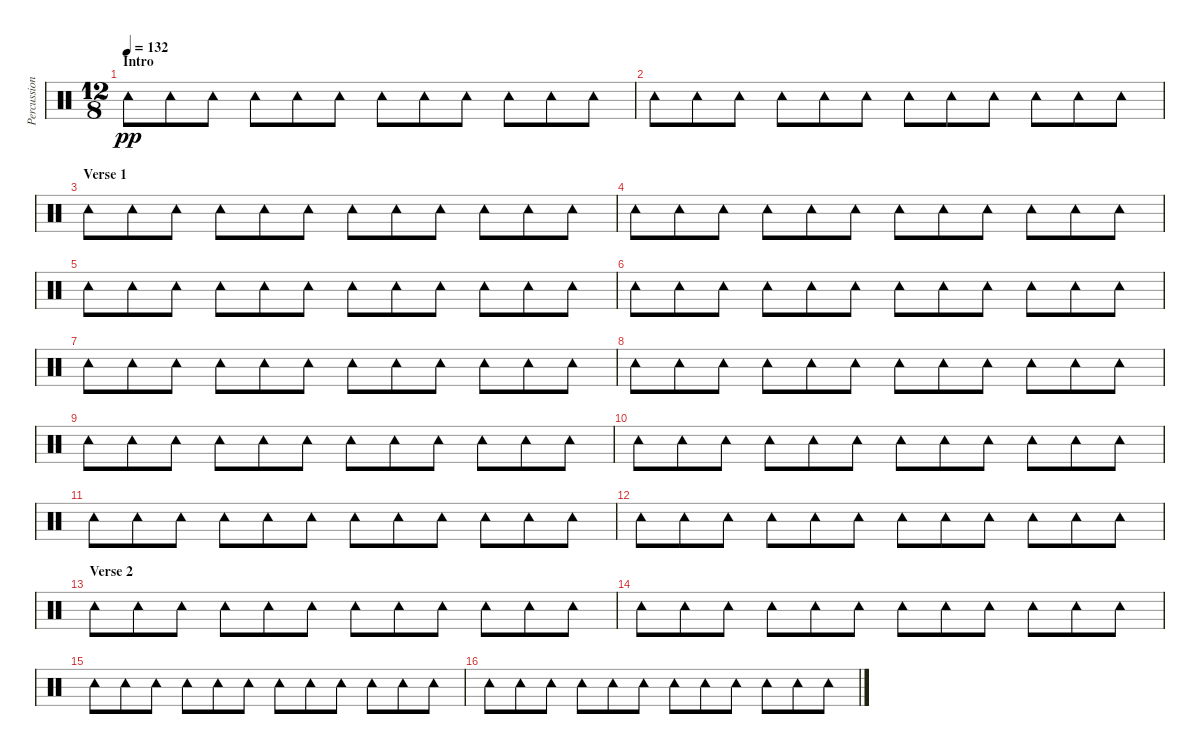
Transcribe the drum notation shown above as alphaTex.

\track ("Percussion" "Percussion") {instrument percussion}
\staff {score}
\articulation defaults
\ts (12 8)
\section ("" "Intro")
\tempo 132
\clef neutral
\ks c "Tambourine (hit)".8{dy pp} "Tambourine (hit)".8 "Tambourine (hit)".8 "Tambourine (hit)".8 "Tambourine (hit)".8 "Tambourine (hit)".8 "Tambourine (hit)".8 "Tambourine (hit)".8 "Tambourine (hit)".8 "Tambourine (hit)".8 "Tambourine (hit)".8 "Tambourine (hit)".8
|
"Tambourine (hit)".8 "Tambourine (hit)".8 "Tambourine (hit)".8 "Tambourine (hit)".8 "Tambourine (hit)".8 "Tambourine (hit)".8 "Tambourine (hit)".8 "Tambourine (hit)".8 "Tambourine (hit)".8 "Tambourine (hit)".8 "Tambourine (hit)".8 "Tambourine (hit)".8 |
\section ("" "Verse 1")
"Tambourine (hit)".8 "Tambourine (hit)".8 "Tambourine (hit)".8 "Tambourine (hit)".8 "Tambourine (hit)".8 "Tambourine (hit)".8 "Tambourine (hit)".8 "Tambourine (hit)".8 "Tambourine (hit)".8 "Tambourine (hit)".8 "Tambourine (hit)".8 "Tambourine (hit)".8 |
"Tambourine (hit)".8 "Tambourine (hit)".8 "Tambourine (hit)".8 "Tambourine (hit)".8 "Tambourine (hit)".8 "Tambourine (hit)".8 "Tambourine (hit)".8 "Tambourine (hit)".8 "Tambourine (hit)".8 "Tambourine (hit)".8 "Tambourine (hit)".8 "Tambourine (hit)".8 |
"Tambourine (hit)".8 "Tambourine (hit)".8 "Tambourine (hit)".8 "Tambourine (hit)".8 "Tambourine (hit)".8 "Tambourine (hit)".8 "Tambourine (hit)".8 "Tambourine (hit)".8 "Tambourine (hit)".8 "Tambourine (hit)".8 "Tambourine (hit)".8 "Tambourine (hit)".8 |
"Tambourine (hit)".8 "Tambourine (hit)".8 "Tambourine (hit)".8 "Tambourine (hit)".8 "Tambourine (hit)".8 "Tambourine (hit)".8 "Tambourine (hit)".8 "Tambourine (hit)".8 "Tambourine (hit)".8 "Tambourine (hit)".8 "Tambourine (hit)".8 "Tambourine (hit)".8 |
"Tambourine (hit)".8 "Tambourine (hit)".8 "Tambourine (hit)".8 "Tambourine (hit)".8 "Tambourine (hit)".8 "Tambourine (hit)".8 "Tambourine (hit)".8 "Tambourine (hit)".8 "Tambourine (hit)".8 "Tambourine (hit)".8 "Tambourine (hit)".8 "Tambourine (hit)".8 |
"Tambourine (hit)".8 "Tambourine (hit)".8 "Tambourine (hit)".8 "Tambourine (hit)".8 "Tambourine (hit)".8 "Tambourine (hit)".8 "Tambourine (hit)".8 "Tambourine (hit)".8 "Tambourine (hit)".8 "Tambourine (hit)".8 "Tambourine (hit)".8 "Tambourine (hit)".8 |
"Tambourine (hit)".8 "Tambourine (hit)".8 "Tambourine (hit)".8 "Tambourine (hit)".8 "Tambourine (hit)".8 "Tambourine (hit)".8 "Tambourine (hit)".8 "Tambourine (hit)".8 "Tambourine (hit)".8 "Tambourine (hit)".8 "Tambourine (hit)".8 "Tambourine (hit)".8 |
"Tambourine (hit)".8 "Tambourine (hit)".8 "Tambourine (hit)".8 "Tambourine (hit)".8 "Tambourine (hit)".8 "Tambourine (hit)".8 "Tambourine (hit)".8 "Tambourine (hit)".8 "Tambourine (hit)".8 "Tambourine (hit)".8 "Tambourine (hit)".8 "Tambourine (hit)".8 |
"Tambourine (hit)".8 "Tambourine (hit)".8 "Tambourine (hit)".8 "Tambourine (hit)".8 "Tambourine (hit)".8 "Tambourine (hit)".8 "Tambourine (hit)".8 "Tambourine (hit)".8 "Tambourine (hit)".8 "Tambourine (hit)".8 "Tambourine (hit)".8 "Tambourine (hit)".8 |
"Tambourine (hit)".8 "Tambourine (hit)".8 "Tambourine (hit)".8 "Tambourine (hit)".8 "Tambourine (hit)".8 "Tambourine (hit)".8 "Tambourine (hit)".8 "Tambourine (hit)".8 "Tambourine (hit)".8 "Tambourine (hit)".8 "Tambourine (hit)".8 "Tambourine (hit)".8 |
\section ("" "Verse 2")
"Tambourine (hit)".8 "Tambourine (hit)".8 "Tambourine (hit)".8 "Tambourine (hit)".8 "Tambourine (hit)".8 "Tambourine (hit)".8 "Tambourine (hit)".8 "Tambourine (hit)".8 "Tambourine (hit)".8 "Tambourine (hit)".8 "Tambourine (hit)".8 "Tambourine (hit)".8 |
"Tambourine (hit)".8 "Tambourine (hit)".8 "Tambourine (hit)".8 "Tambourine (hit)".8 "Tambourine (hit)".8 "Tambourine (hit)".8 "Tambourine (hit)".8 "Tambourine (hit)".8 "Tambourine (hit)".8 "Tambourine (hit)".8 "Tambourine (hit)".8 "Tambourine (hit)".8 |
"Tambourine (hit)".8 "Tambourine (hit)".8 "Tambourine (hit)".8 "Tambourine (hit)".8 "Tambourine (hit)".8 "Tambourine (hit)".8 "Tambourine (hit)".8 "Tambourine (hit)".8 "Tambourine (hit)".8 "Tambourine (hit)".8 "Tambourine (hit)".8 "Tambourine (hit)".8 |
"Tambourine (hit)".8 "Tambourine (hit)".8 "Tambourine (hit)".8 "Tambourine (hit)".8 "Tambourine (hit)".8 "Tambourine (hit)".8 "Tambourine (hit)".8 "Tambourine (hit)".8 "Tambourine (hit)".8 "Tambourine (hit)".8 "Tambourine (hit)".8 "Tambourine (hit)".8
